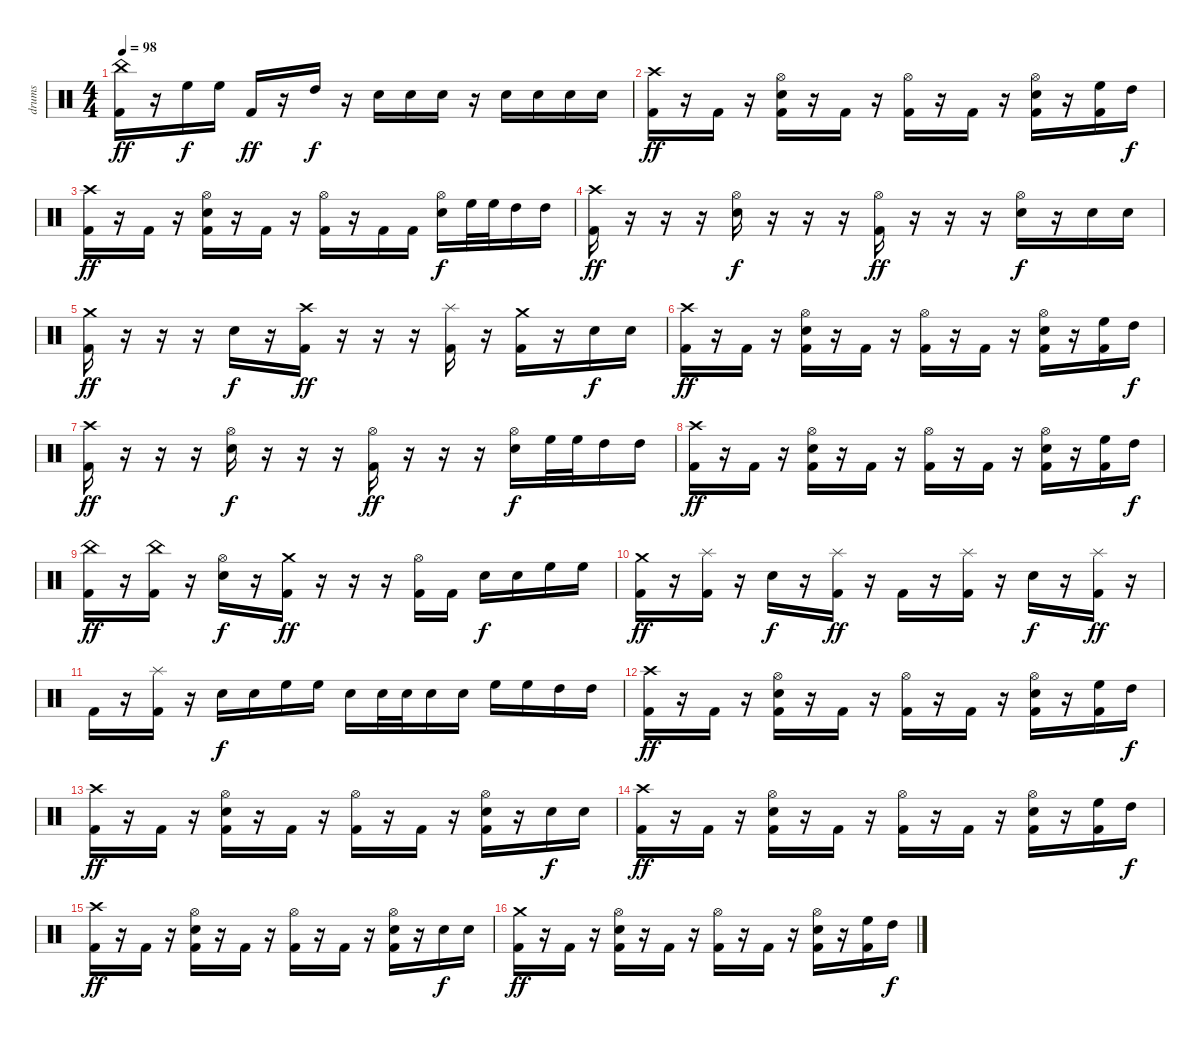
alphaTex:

\track ("drums" "drums") {instrument percussion}
\staff {score}
\articulation defaults
\ts (4 4)
\tempo 98
\clef neutral
\ks c
("China (hit)" "Kick (hit) 2").16{dy ff} r.16 "High Floor Tom (hit)".16{dy f} "High Floor Tom (hit)".16 "Kick (hit) 2".16{dy ff} r.16 "High Tom (hit)".16{dy f} r.16 "Electric Snare (hit)".16 "Electric Snare (hit)".16 "Electric Snare (hit)".16 r.16 "Electric Snare (hit)".16 "Electric Snare (hit)".16 "Electric Snare (hit)".16 "Electric Snare (hit)".16 |
("Crash high (hit)" "Kick (hit) 2").16{dy ff} r.16 "Kick (hit) 2".16 r.16 ("Hi-Hat (open)" "Electric Snare (hit)" "Kick (hit) 2").16 r.16 "Kick (hit) 2".16 r.16 ("Hi-Hat (open)" "Kick (hit) 2").16 r.16 "Kick (hit) 2".16 r.16 ("Hi-Hat (open)" "Electric Snare (hit)" "Kick (hit) 2").16 r.16 ("High Floor Tom (hit)" "Kick (hit) 2").16 "High Tom (hit)".16{dy f} |
("Crash high (hit)" "Kick (hit) 2").16{dy ff} r.16 "Kick (hit) 2".16 r.16 ("Hi-Hat (open)" "Electric Snare (hit)" "Kick (hit) 2").16 r.16 "Kick (hit) 2".16 r.16 ("Hi-Hat (open)" "Kick (hit) 2").16 r.16 "Kick (hit) 2".16 "Kick (hit) 2".16 ("Hi-Hat (open)" "Electric Snare (hit)").16{dy f} "High Floor Tom (hit)".32 "High Floor Tom (hit)".32 "High Tom (hit)".16 "High Tom (hit)".16 |
("Crash high (hit)" "Kick (hit) 2").16{dy ff} r.16 r.16 r.16 ("Hi-Hat (open)" "Electric Snare (hit)").16{dy f} r.16 r.16 r.16 ("Hi-Hat (open)" "Kick (hit) 2").16{dy ff} r.16 r.16 r.16 ("Hi-Hat (open)" "Electric Snare (hit)").16{dy f} r.16 "Electric Snare (hit)".16 "Electric Snare (hit)".16 |
("Crash medium (hit)" "Kick (hit) 2").16{dy ff} r.16 r.16 r.16 "Electric Snare (hit)".16{dy f} r.16 ("Crash high (hit)" "Kick (hit) 2").16{dy ff} r.16 r.16 r.16 ("Splash (hit)" "Kick (hit) 2").16 r.16 ("Crash medium (hit)" "Kick (hit) 2").16 r.16 "Electric Snare (hit)".16{dy f} "Electric Snare (hit)".16 |
("Crash high (hit)" "Kick (hit) 2").16{dy ff} r.16 "Kick (hit) 2".16 r.16 ("Hi-Hat (open)" "Electric Snare (hit)" "Kick (hit) 2").16 r.16 "Kick (hit) 2".16 r.16 ("Hi-Hat (open)" "Kick (hit) 2").16 r.16 "Kick (hit) 2".16 r.16 ("Hi-Hat (open)" "Electric Snare (hit)" "Kick (hit) 2").16 r.16 ("High Floor Tom (hit)" "Kick (hit) 2").16 "High Tom (hit)".16{dy f} |
("Crash high (hit)" "Kick (hit) 2").16{dy ff} r.16 r.16 r.16 ("Hi-Hat (open)" "Electric Snare (hit)").16{dy f} r.16 r.16 r.16 ("Hi-Hat (open)" "Kick (hit) 2").16{dy ff} r.16 r.16 r.16 ("Hi-Hat (open)" "Electric Snare (hit)").16{dy f} "High Floor Tom (hit)".32 "High Floor Tom (hit)".32 "High Tom (hit)".16 "High Tom (hit)".16 |
("Crash high (hit)" "Kick (hit) 2").16{dy ff} r.16 "Kick (hit) 2".16 r.16 ("Hi-Hat (open)" "Electric Snare (hit)" "Kick (hit) 2").16 r.16 "Kick (hit) 2".16 r.16 ("Hi-Hat (open)" "Kick (hit) 2").16 r.16 "Kick (hit) 2".16 r.16 ("Hi-Hat (open)" "Electric Snare (hit)" "Kick (hit) 2").16 r.16 ("High Floor Tom (hit)" "Kick (hit) 2").16 "High Tom (hit)".16{dy f} |
("China (hit)" "Kick (hit) 2").16{dy ff} r.16 ("China (hit)" "Kick (hit) 2").16 r.16 ("Hi-Hat (open)" "Electric Snare (hit)").16{dy f} r.16 ("Crash medium (hit)" "Kick (hit) 2").16{dy ff} r.16 r.16 r.16 ("Hi-Hat (open)" "Kick (hit) 2").16 "Kick (hit) 2".16 "Electric Snare (hit)".16{dy f} "Electric Snare (hit)".16 "High Floor Tom (hit)".16 "High Floor Tom (hit)".16 |
("Crash medium (hit)" "Kick (hit) 2").16{dy ff} r.16 ("Splash (hit)" "Kick (hit) 2").16 r.16 "Electric Snare (hit)".16{dy f} r.16 ("Splash (hit)" "Kick (hit) 2").16{dy ff} r.16 "Kick (hit) 2".16 r.16 ("Splash (hit)" "Kick (hit) 2").16 r.16 "Electric Snare (hit)".16{dy f} r.16 ("Splash (hit)" "Kick (hit) 2").16{dy ff} r.16 |
"Kick (hit) 2".16 r.16 ("Splash (hit)" "Kick (hit) 2").16 r.16 "Electric Snare (hit)".16{dy f} "Electric Snare (hit)".16 "High Floor Tom (hit)".16 "High Floor Tom (hit)".16 "Electric Snare (hit)".16 "Electric Snare (hit)".32 "Electric Snare (hit)".32 "Electric Snare (hit)".16 "Electric Snare (hit)".16 "High Floor Tom (hit)".16 "High Floor Tom (hit)".16 "High Tom (hit)".16 "High Tom (hit)".16 |
("Crash high (hit)" "Kick (hit) 2").16{dy ff} r.16 "Kick (hit) 2".16 r.16 ("Hi-Hat (open)" "Electric Snare (hit)" "Kick (hit) 2").16 r.16 "Kick (hit) 2".16 r.16 ("Hi-Hat (open)" "Kick (hit) 2").16 r.16 "Kick (hit) 2".16 r.16 ("Hi-Hat (open)" "Electric Snare (hit)" "Kick (hit) 2").16 r.16 ("High Floor Tom (hit)" "Kick (hit) 2").16 "High Tom (hit)".16{dy f} |
("Crash high (hit)" "Kick (hit) 2").16{dy ff} r.16 "Kick (hit) 2".16 r.16 ("Hi-Hat (open)" "Electric Snare (hit)" "Kick (hit) 2").16 r.16 "Kick (hit) 2".16 r.16 ("Hi-Hat (open)" "Kick (hit) 2").16 r.16 "Kick (hit) 2".16 r.16 ("Hi-Hat (open)" "Electric Snare (hit)" "Kick (hit) 2").16 r.16 "Electric Snare (hit)".16{dy f} "Electric Snare (hit)".16 |
("Crash high (hit)" "Kick (hit) 2").16{dy ff} r.16 "Kick (hit) 2".16 r.16 ("Hi-Hat (open)" "Electric Snare (hit)" "Kick (hit) 2").16 r.16 "Kick (hit) 2".16 r.16 ("Hi-Hat (open)" "Kick (hit) 2").16 r.16 "Kick (hit) 2".16 r.16 ("Hi-Hat (open)" "Electric Snare (hit)" "Kick (hit) 2").16 r.16 ("High Floor Tom (hit)" "Kick (hit) 2").16 "High Tom (hit)".16{dy f} |
("Crash high (hit)" "Kick (hit) 2").16{dy ff} r.16 "Kick (hit) 2".16 r.16 ("Hi-Hat (open)" "Electric Snare (hit)" "Kick (hit) 2").16 r.16 "Kick (hit) 2".16 r.16 ("Hi-Hat (open)" "Kick (hit) 2").16 r.16 "Kick (hit) 2".16 r.16 ("Hi-Hat (open)" "Electric Snare (hit)" "Kick (hit) 2").16 r.16 "Electric Snare (hit)".16{dy f} "Electric Snare (hit)".16 |
("Crash medium (hit)" "Kick (hit) 2").16{dy ff} r.16 "Kick (hit) 2".16 r.16 ("Hi-Hat (open)" "Electric Snare (hit)" "Kick (hit) 2").16 r.16 "Kick (hit) 2".16 r.16 ("Hi-Hat (open)" "Kick (hit) 2").16 r.16 "Kick (hit) 2".16 r.16 ("Hi-Hat (open)" "Electric Snare (hit)" "Kick (hit) 2").16 r.16 ("High Floor Tom (hit)" "Kick (hit) 2").16 "High Tom (hit)".16{dy f}
